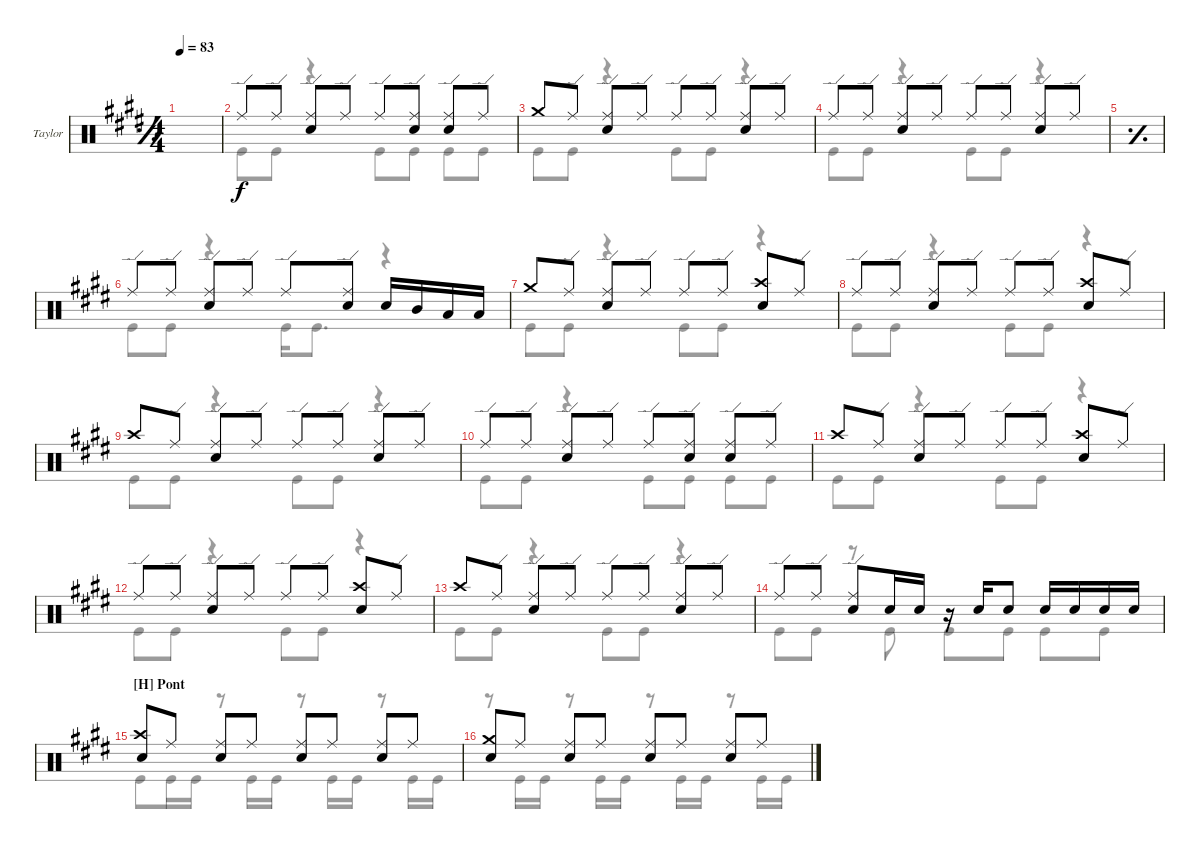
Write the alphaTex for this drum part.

\defaultSystemsLayout 4
\bracketExtendMode groupsimilarinstruments
\firstSystemTrackNameOrientation horizontal
\otherSystemsTrackNameOrientation horizontal
\track ("Drums - Taylor Hawkins" "Taylor") {instrument percussion}
\staff {score}
\articulation defaults
\voice
\ts (4 4)
\tempo 83
\clef neutral
\simile simple
\ks e
|
\simile none "Ride (edge)".8 "Ride (edge)".8
("Ride (edge)" "Snare (hit) 2").8 "Ride (edge)".8 "Ride (edge)".8 ("Ride (edge)" "Snare (hit) 2").8 ("Ride (edge)" "Snare (hit) 2").8 "Ride (edge)".8 |
"Crash medium (hit)".8 "Ride (edge)".8 ("Ride (edge)" "Snare (hit) 2").8 "Ride (edge)".8 "Ride (edge)".8 "Ride (edge)".8 ("Ride (edge)" "Snare (hit) 2").8 "Ride (edge)".8 |
"Ride (edge)".8 "Ride (edge)".8 ("Ride (edge)" "Snare (hit) 2").8 "Ride (edge)".8 "Ride (edge)".8 "Ride (edge)".8 ("Ride (edge)" "Snare (hit) 2").8 "Ride (edge)".8 |
\simile simple
|
\simile none "Ride (edge)".8 "Ride (edge)".8
("Ride (edge)" "Snare (hit) 2").8 "Ride (edge)".8 "Ride (edge)".8 ("Ride (edge)" "Snare (hit) 2").8 "Snare (hit) 2".16 "Mid Tom (hit)".16 "Low Tom (hit)".16 "Low Tom (hit)".16 |
"Crash medium (hit)".8 "Ride (edge)".8 ("Ride (edge)" "Snare (hit) 2").8 "Ride (edge)".8 "Ride (edge)".8 "Ride (edge)".8 ("Snare (hit) 2" "Crash high (hit)").8 "Ride (edge)".8 |
"Ride (edge)".8 "Ride (edge)".8 ("Ride (edge)" "Snare (hit) 2").8 "Ride (edge)".8 "Ride (edge)".8 "Ride (edge)".8 ("Snare (hit) 2" "Crash high (hit)").8 "Ride (edge)".8 |
"Crash high (hit)".8 "Ride (edge)".8 ("Ride (edge)" "Snare (hit) 2").8 "Ride (edge)".8 "Ride (edge)".8 "Ride (edge)".8 ("Snare (hit) 2" "Ride (edge)").8 "Ride (edge)".8 |
"Ride (edge)".8 "Ride (edge)".8 ("Ride (edge)" "Snare (hit) 2").8 "Ride (edge)".8 "Ride (edge)".8 ("Ride (edge)" "Snare (hit) 2").8 ("Ride (edge)" "Snare (hit) 2").8 "Ride (edge)".8 |
"Crash high (hit)".8 "Ride (edge)".8 ("Ride (edge)" "Snare (hit) 2").8 "Ride (edge)".8 "Ride (edge)".8 "Ride (edge)".8 ("Snare (hit) 2" "Crash high (hit)").8 "Ride (edge)".8 |
"Ride (edge)".8 "Ride (edge)".8 ("Ride (edge)" "Snare (hit) 2").8 "Ride (edge)".8 "Ride (edge)".8 "Ride (edge)".8 ("Snare (hit) 2" "Crash high (hit)").8 "Ride (edge)".8 |
"Crash high (hit)".8 "Ride (edge)".8 ("Ride (edge)" "Snare (hit) 2").8 "Ride (edge)".8 "Ride (edge)".8 "Ride (edge)".8 ("Snare (hit) 2" "Ride (edge)").8 "Ride (edge)".8 |
"Ride (edge)".8 "Ride (edge)".8 ("Ride (edge)" "Snare (hit) 2").8 "Snare (hit) 2".16 "Snare (hit) 2".16 r.16 "Snare (hit) 2".16 "Snare (hit) 2".8 "Snare (hit) 2".16 "Snare (hit) 2".16 "Snare (hit) 2".16 "Snare (hit) 2".16 |
\section ("H" "Pont")
("Crash high (hit)" "Snare (hit) 2").8 "Ride (middle)".8 ("Ride (middle)" "Snare (hit) 2").8 "Ride (middle)".8 ("Ride (middle)" "Snare (hit) 2").8 "Ride (middle)".8 ("Ride (middle)" "Snare (hit) 2").8 "Ride (middle)".8 |
("Snare (hit) 2" "Crash medium (hit)").8 "Ride (middle)".8 ("Ride (middle)" "Snare (hit) 2").8 "Ride (middle)".8 ("Ride (middle)" "Snare (hit) 2").8 "Ride (middle)".8 ("Ride (middle)" "Snare (hit) 2").8 "Ride (middle)".8
\voice
\clef neutral
\ottava regular
\simile simple
\ks e
|
\simile none "Kick (hit)".8 "Kick (hit)".8
r.4 "Kick (hit)".8 "Kick (hit)".8 "Kick (hit)".8 "Kick (hit)".8 |
"Kick (hit)".8 "Kick (hit)".8 r.4 "Kick (hit)".8 "Kick (hit)".8 r.4 |
"Kick (hit)".8 "Kick (hit)".8 r.4 "Kick (hit)".8 "Kick (hit)".8 r.4 |
\simile simple
|
\simile none "Kick (hit)".8 "Kick (hit)".8
r.4 "Kick (hit)".16 "Kick (hit)".8{d} r.4 |
"Kick (hit)".8 "Kick (hit)".8 r.4 "Kick (hit)".8 "Kick (hit)".8 r.4 |
"Kick (hit)".8 "Kick (hit)".8 r.4 "Kick (hit)".8 "Kick (hit)".8 r.4 |
"Kick (hit)".8 "Kick (hit)".8 r.4 "Kick (hit)".8 "Kick (hit)".8 r.4 |
"Kick (hit)".8 "Kick (hit)".8 r.4 "Kick (hit)".8 "Kick (hit)".8 "Kick (hit)".8 "Kick (hit)".8 |
"Kick (hit)".8 "Kick (hit)".8 r.4 "Kick (hit)".8 "Kick (hit)".8 r.4 |
"Kick (hit)".8 "Kick (hit)".8 r.4 "Kick (hit)".8 "Kick (hit)".8 r.4 |
"Kick (hit)".8 "Kick (hit)".8 r.4 "Kick (hit)".8 "Kick (hit)".8 r.4 |
"Kick (hit)".8 "Kick (hit)".8 r.8 "Kick (hit)".8 "Kick (hit)".8 "Kick (hit)".8 "Kick (hit)".8 "Kick (hit)".8 |
"Kick (hit)".8 "Kick (hit)".16 "Kick (hit)".16 r.8 "Kick (hit)".16 "Kick (hit)".16 r.8 "Kick (hit)".16 "Kick (hit)".16 r.8 "Kick (hit)".16 "Kick (hit)".16 |
r.8 "Kick (hit)".16 "Kick (hit)".16 r.8 "Kick (hit)".16 "Kick (hit)".16 r.8 "Kick (hit)".16 "Kick (hit)".16 r.8 "Kick (hit)".16 "Kick (hit)".16
